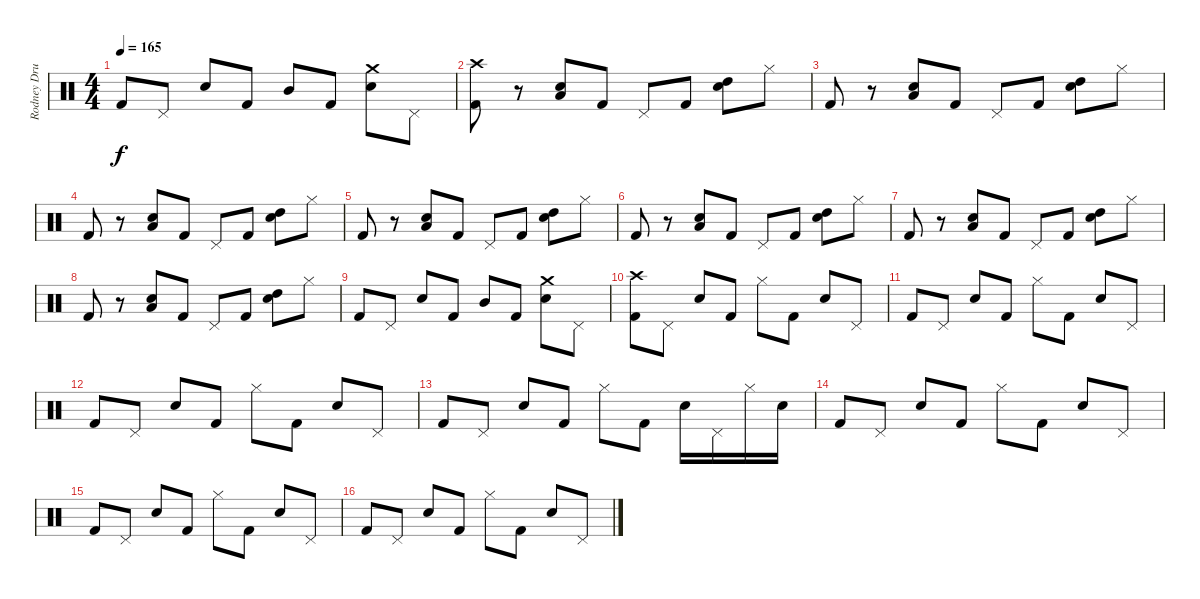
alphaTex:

\track ("Rodney Drums" "Rodney Dru") {instrument percussion}
\staff {score}
\articulation defaults
\ts (4 4)
\tempo 165
\clef neutral
\ks c "Kick (hit) 2".8{dy f} "Pedal Hi-Hat (hit)".8 "Electric Snare (hit)".8 "Kick (hit) 2".8 "Mid Tom (hit)".8 "Kick (hit) 2".8
("Electric Snare (hit)" "Crash medium (hit)").8 "Pedal Hi-Hat (hit)".8 |
("Kick (hit) 2" "Crash high (hit)").8 r.8 ("Low Tom (hit)" "Electric Snare (hit)").8 "Kick (hit) 2".8 "Pedal Hi-Hat (hit)".8 "Kick (hit) 2".8 ("High Tom (hit)" "Electric Snare (hit)").8 "Hi-Hat (closed)".8 |
"Kick (hit) 2".8 r.8 ("Low Tom (hit)" "Electric Snare (hit)").8 "Kick (hit) 2".8 "Pedal Hi-Hat (hit)".8 "Kick (hit) 2".8 ("High Tom (hit)" "Electric Snare (hit)").8 "Hi-Hat (closed)".8 |
"Kick (hit) 2".8 r.8 ("Low Tom (hit)" "Electric Snare (hit)").8 "Kick (hit) 2".8 "Pedal Hi-Hat (hit)".8 "Kick (hit) 2".8 ("High Tom (hit)" "Electric Snare (hit)").8 "Hi-Hat (closed)".8 |
"Kick (hit) 2".8 r.8 ("Low Tom (hit)" "Electric Snare (hit)").8 "Kick (hit) 2".8 "Pedal Hi-Hat (hit)".8 "Kick (hit) 2".8 ("High Tom (hit)" "Electric Snare (hit)").8 "Hi-Hat (closed)".8 |
"Kick (hit) 2".8 r.8 ("Low Tom (hit)" "Electric Snare (hit)").8 "Kick (hit) 2".8 "Pedal Hi-Hat (hit)".8 "Kick (hit) 2".8 ("High Tom (hit)" "Electric Snare (hit)").8 "Hi-Hat (closed)".8 |
"Kick (hit) 2".8 r.8 ("Low Tom (hit)" "Electric Snare (hit)").8 "Kick (hit) 2".8 "Pedal Hi-Hat (hit)".8 "Kick (hit) 2".8 ("High Tom (hit)" "Electric Snare (hit)").8 "Hi-Hat (closed)".8 |
"Kick (hit) 2".8 r.8 ("Low Tom (hit)" "Electric Snare (hit)").8 "Kick (hit) 2".8 "Pedal Hi-Hat (hit)".8 "Kick (hit) 2".8 ("High Tom (hit)" "Electric Snare (hit)").8 "Hi-Hat (closed)".8 |
"Kick (hit) 2".8 "Pedal Hi-Hat (hit)".8 "Electric Snare (hit)".8 "Kick (hit) 2".8 "Mid Tom (hit)".8 "Kick (hit) 2".8 ("Electric Snare (hit)" "Crash medium (hit)").8 "Pedal Hi-Hat (hit)".8 |
("Crash high (hit)" "Kick (hit) 2").8 "Pedal Hi-Hat (hit)".8 "Electric Snare (hit)".8 "Kick (hit) 2".8 "Hi-Hat (closed)".8 "Kick (hit) 2".8 "Electric Snare (hit)".8 "Pedal Hi-Hat (hit)".8 |
"Kick (hit) 2".8 "Pedal Hi-Hat (hit)".8 "Electric Snare (hit)".8 "Kick (hit) 2".8 "Hi-Hat (closed)".8 "Kick (hit) 2".8 "Electric Snare (hit)".8 "Pedal Hi-Hat (hit)".8 |
"Kick (hit) 2".8 "Pedal Hi-Hat (hit)".8 "Electric Snare (hit)".8 "Kick (hit) 2".8 "Hi-Hat (closed)".8 "Kick (hit) 2".8 "Electric Snare (hit)".8 "Pedal Hi-Hat (hit)".8 |
"Kick (hit) 2".8 "Pedal Hi-Hat (hit)".8 "Electric Snare (hit)".8 "Kick (hit) 2".8 "Hi-Hat (closed)".8 "Kick (hit) 2".8 "Electric Snare (hit)".16 "Pedal Hi-Hat (hit)".16 "Hi-Hat (closed)".16 "Electric Snare (hit)".16 |
"Kick (hit) 2".8 "Pedal Hi-Hat (hit)".8 "Electric Snare (hit)".8 "Kick (hit) 2".8 "Hi-Hat (closed)".8 "Kick (hit) 2".8 "Electric Snare (hit)".8 "Pedal Hi-Hat (hit)".8 |
"Kick (hit) 2".8 "Pedal Hi-Hat (hit)".8 "Electric Snare (hit)".8 "Kick (hit) 2".8 "Hi-Hat (closed)".8 "Kick (hit) 2".8 "Electric Snare (hit)".8 "Pedal Hi-Hat (hit)".8 |
"Kick (hit) 2".8 "Pedal Hi-Hat (hit)".8 "Electric Snare (hit)".8 "Kick (hit) 2".8 "Hi-Hat (closed)".8 "Kick (hit) 2".8 "Electric Snare (hit)".8 "Pedal Hi-Hat (hit)".8
